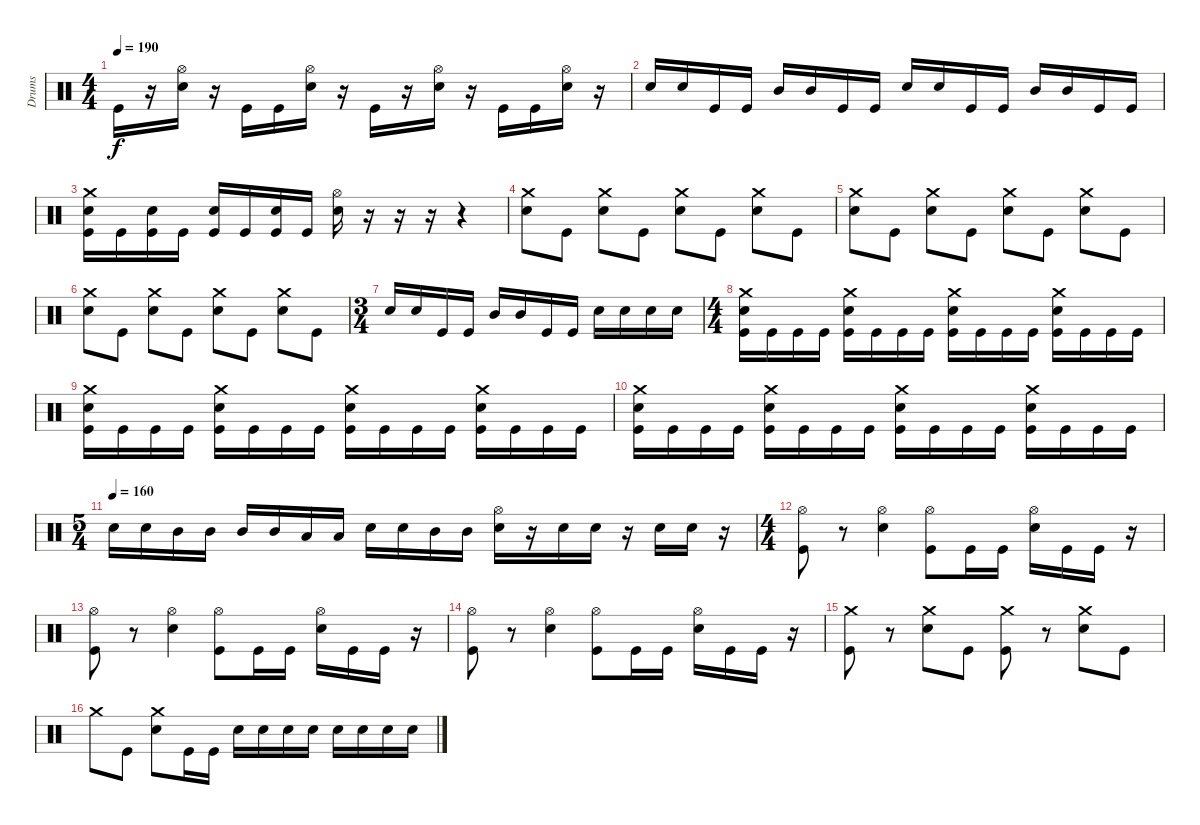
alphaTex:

\track ("Drums" "Drums") {instrument percussion}
\staff {score}
\articulation defaults
\ts (4 4)
\tempo 190
\clef neutral
\ks c "Kick (hit)".16{dy f volume 13}
r.16 ("Hi-Hat (open)" "Electric Snare (hit)").16 r.16 "Kick (hit)".16{volume 13} "Kick (hit)".16 ("Hi-Hat (open)" "Electric Snare (hit)").16 r.16 "Kick (hit)".16{volume 13} r.16 ("Hi-Hat (open)" "Electric Snare (hit)").16 r.16 "Kick (hit)".16{volume 13} "Kick (hit)".16 ("Hi-Hat (open)" "Electric Snare (hit)").16 r.16 |
"Electric Snare (hit)".16 "Electric Snare (hit)".16 "Kick (hit)".16 "Kick (hit)".16 "Mid Tom (hit)".16 "Mid Tom (hit)".16 "Kick (hit)".16 "Kick (hit)".16 "Electric Snare (hit)".16 "Electric Snare (hit)".16 "Kick (hit)".16 "Kick (hit)".16 "Mid Tom (hit)".16 "Mid Tom (hit)".16 "Kick (hit)".16 "Kick (hit)".16 |
("Crash medium (hit)" "Electric Snare (hit)" "Kick (hit)").16 "Kick (hit)".16 ("Electric Snare (hit)" "Kick (hit)").16 "Kick (hit)".16 ("Electric Snare (hit)" "Kick (hit)").16 "Kick (hit)".16 ("Electric Snare (hit)" "Kick (hit)").16 "Kick (hit)".16 ("Electric Snare (hit)" "Hi-Hat (open)").16 r.16 r.16{volume 0} r.16 r.4 |
("Crash medium (hit)" "Electric Snare (hit)").8{volume 13} "Kick (hit)".8 ("Crash medium (hit)" "Electric Snare (hit)").8 "Kick (hit)".8 ("Crash medium (hit)" "Electric Snare (hit)").8 "Kick (hit)".8 ("Crash medium (hit)" "Electric Snare (hit)").8 "Kick (hit)".8 |
("Crash medium (hit)" "Electric Snare (hit)").8 "Kick (hit)".8 ("Crash medium (hit)" "Electric Snare (hit)").8 "Kick (hit)".8 ("Crash medium (hit)" "Electric Snare (hit)").8 "Kick (hit)".8 ("Crash medium (hit)" "Electric Snare (hit)").8 "Kick (hit)".8 |
("Crash medium (hit)" "Electric Snare (hit)").8 "Kick (hit)".8 ("Crash medium (hit)" "Electric Snare (hit)").8 "Kick (hit)".8 ("Crash medium (hit)" "Electric Snare (hit)").8 "Kick (hit)".8 ("Crash medium (hit)" "Electric Snare (hit)").8 "Kick (hit)".8 |
\ts (3 4)
"Electric Snare (hit)".16 "Electric Snare (hit)".16 "Kick (hit)".16 "Kick (hit)".16 "Mid Tom (hit)".16 "Mid Tom (hit)".16 "Kick (hit)".16 "Kick (hit)".16 "Electric Snare (hit)".16 "Electric Snare (hit)".16 "Electric Snare (hit)".16 "Electric Snare (hit)".16 |
\ts (4 4)
("Electric Snare (hit)" "Crash medium (hit)" "Kick (hit)").16 "Kick (hit)".16 "Kick (hit)".16 "Kick (hit)".16 ("Electric Snare (hit)" "Crash medium (hit)" "Kick (hit)").16 "Kick (hit)".16 "Kick (hit)".16 "Kick (hit)".16 ("Electric Snare (hit)" "Crash medium (hit)" "Kick (hit)").16 "Kick (hit)".16 "Kick (hit)".16 "Kick (hit)".16 ("Electric Snare (hit)" "Crash medium (hit)" "Kick (hit)").16 "Kick (hit)".16 "Kick (hit)".16 "Kick (hit)".16 |
("Electric Snare (hit)" "Crash medium (hit)" "Kick (hit)").16 "Kick (hit)".16 "Kick (hit)".16 "Kick (hit)".16 ("Electric Snare (hit)" "Crash medium (hit)" "Kick (hit)").16 "Kick (hit)".16 "Kick (hit)".16 "Kick (hit)".16 ("Electric Snare (hit)" "Crash medium (hit)" "Kick (hit)").16 "Kick (hit)".16 "Kick (hit)".16 "Kick (hit)".16 ("Electric Snare (hit)" "Crash medium (hit)" "Kick (hit)").16 "Kick (hit)".16 "Kick (hit)".16 "Kick (hit)".16 |
("Electric Snare (hit)" "Crash medium (hit)" "Kick (hit)").16 "Kick (hit)".16 "Kick (hit)".16 "Kick (hit)".16 ("Electric Snare (hit)" "Crash medium (hit)" "Kick (hit)").16 "Kick (hit)".16 "Kick (hit)".16 "Kick (hit)".16 ("Electric Snare (hit)" "Crash medium (hit)" "Kick (hit)").16 "Kick (hit)".16 "Kick (hit)".16 "Kick (hit)".16 ("Electric Snare (hit)" "Crash medium (hit)" "Kick (hit)").16 "Kick (hit)".16 "Kick (hit)".16 "Kick (hit)".16 |
\ts (5 4)
\tempo (160)
"Electric Snare (hit)".16 "Electric Snare (hit)".16 "Mid Tom (hit)".16 "Mid Tom (hit)".16 "Mid Tom (hit)".16 "Mid Tom (hit)".16 "Low Tom (hit)".16 "Low Tom (hit)".16 "Electric Snare (hit)".16 "Electric Snare (hit)".16 "Mid Tom (hit)".16 "Mid Tom (hit)".16 ("Hi-Hat (open)" "Electric Snare (hit)").16 r.16 "Electric Snare (hit)".16 "Electric Snare (hit)".16 r.16 "Electric Snare (hit)".16 "Electric Snare (hit)".16 r.16 |
\ts (4 4)
("Hi-Hat (open)" "Kick (hit)").8 r.8{volume 0} ("Hi-Hat (open)" "Electric Snare (hit)").4{volume 13} ("Hi-Hat (open)" "Kick (hit)").8 "Kick (hit)".16 "Kick (hit)".16 ("Hi-Hat (open)" "Electric Snare (hit)").16 "Kick (hit)".16 "Kick (hit)".16 r.16 |
("Hi-Hat (open)" "Kick (hit)").8 r.8 ("Hi-Hat (open)" "Electric Snare (hit)").4 ("Hi-Hat (open)" "Kick (hit)").8 "Kick (hit)".16 "Kick (hit)".16 ("Hi-Hat (open)" "Electric Snare (hit)").16 "Kick (hit)".16 "Kick (hit)".16 r.16 |
("Hi-Hat (open)" "Kick (hit)").8 r.8 ("Hi-Hat (open)" "Electric Snare (hit)").4 ("Hi-Hat (open)" "Kick (hit)").8 "Kick (hit)".16 "Kick (hit)".16 ("Hi-Hat (open)" "Electric Snare (hit)").16 "Kick (hit)".16 "Kick (hit)".16 r.16 |
("Crash medium (hit)" "Kick (hit)").8 r.8 ("Crash medium (hit)" "Electric Snare (hit)").8 "Kick (hit)".8 ("Crash medium (hit)" "Kick (hit)").8 r.8 ("Crash medium (hit)" "Electric Snare (hit)").8 "Kick (hit)".8 |
"Crash medium (hit)".8 "Kick (hit)".8 ("Crash medium (hit)" "Electric Snare (hit)").8 "Kick (hit)".16 "Kick (hit)".16 "Electric Snare (hit)".16 "Electric Snare (hit)".16 "Electric Snare (hit)".16 "Electric Snare (hit)".16 "Electric Snare (hit)".16 "Electric Snare (hit)".16 "Electric Snare (hit)".16 "Electric Snare (hit)".16
